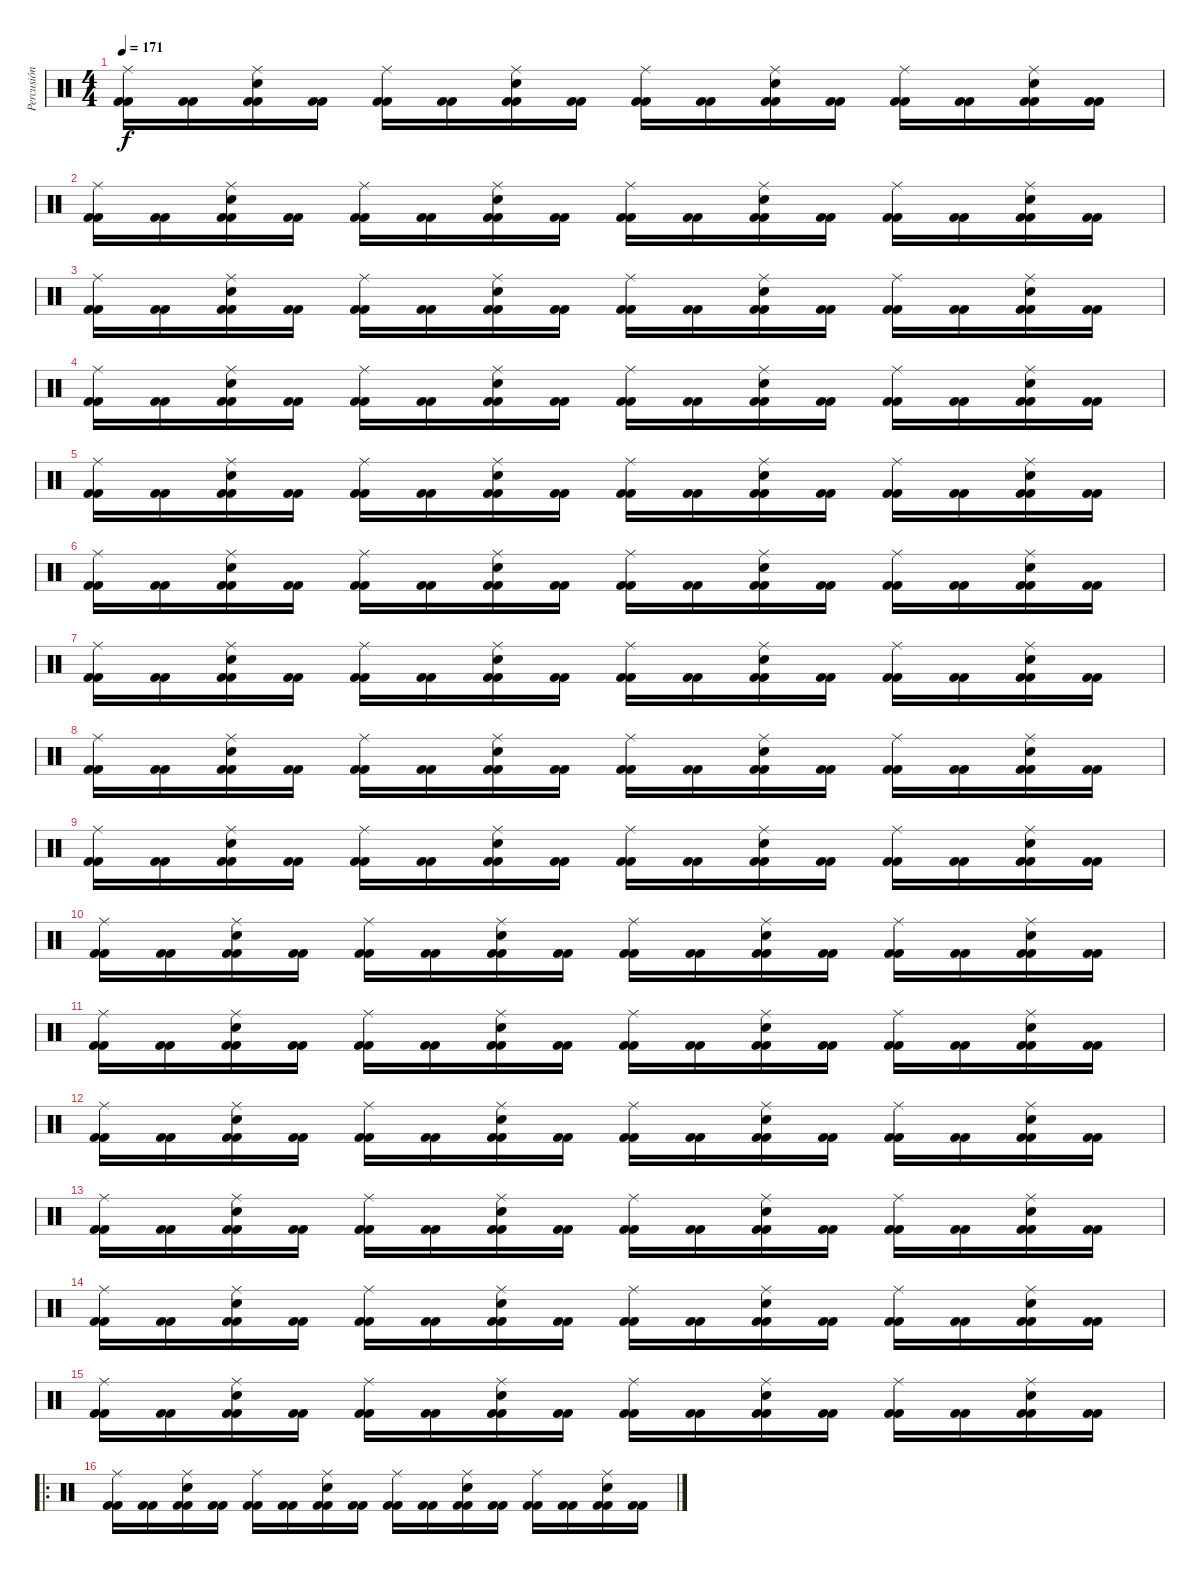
\track ("Percusión" "Percusión") {instrument percussion}
\staff {score}
\articulation defaults
\ts (4 4)
\tempo 171
\clef neutral
\ks c
("Kick (hit) 2" "Kick (hit) 2" "Ride (middle)").16{dy f} ("Kick (hit) 2" "Kick (hit) 2").16 ("Kick (hit) 2" "Kick (hit) 2" "Electric Snare (hit)" "Ride (middle)").16 ("Kick (hit) 2" "Kick (hit) 2").16 ("Kick (hit) 2" "Kick (hit) 2" "Ride (middle)").16 ("Kick (hit) 2" "Kick (hit) 2").16 ("Kick (hit) 2" "Kick (hit) 2" "Electric Snare (hit)" "Ride (middle)").16 ("Kick (hit) 2" "Kick (hit) 2").16 ("Kick (hit) 2" "Kick (hit) 2" "Ride (middle)").16 ("Kick (hit) 2" "Kick (hit) 2").16 ("Kick (hit) 2" "Kick (hit) 2" "Electric Snare (hit)" "Ride (middle)").16 ("Kick (hit) 2" "Kick (hit) 2").16 ("Kick (hit) 2" "Kick (hit) 2" "Ride (middle)").16 ("Kick (hit) 2" "Kick (hit) 2").16 ("Kick (hit) 2" "Kick (hit) 2" "Electric Snare (hit)" "Ride (middle)").16 ("Kick (hit) 2" "Kick (hit) 2").16 |
("Kick (hit) 2" "Kick (hit) 2" "Ride (middle)").16 ("Kick (hit) 2" "Kick (hit) 2").16 ("Kick (hit) 2" "Kick (hit) 2" "Electric Snare (hit)" "Ride (middle)").16 ("Kick (hit) 2" "Kick (hit) 2").16 ("Kick (hit) 2" "Kick (hit) 2" "Ride (middle)").16 ("Kick (hit) 2" "Kick (hit) 2").16 ("Kick (hit) 2" "Kick (hit) 2" "Electric Snare (hit)" "Ride (middle)").16 ("Kick (hit) 2" "Kick (hit) 2").16 ("Kick (hit) 2" "Kick (hit) 2" "Ride (middle)").16 ("Kick (hit) 2" "Kick (hit) 2").16 ("Kick (hit) 2" "Kick (hit) 2" "Electric Snare (hit)" "Ride (middle)").16 ("Kick (hit) 2" "Kick (hit) 2").16 ("Kick (hit) 2" "Kick (hit) 2" "Ride (middle)").16 ("Kick (hit) 2" "Kick (hit) 2").16 ("Kick (hit) 2" "Kick (hit) 2" "Electric Snare (hit)" "Ride (middle)").16 ("Kick (hit) 2" "Kick (hit) 2").16 |
("Kick (hit) 2" "Kick (hit) 2" "Ride (middle)").16 ("Kick (hit) 2" "Kick (hit) 2").16 ("Kick (hit) 2" "Kick (hit) 2" "Electric Snare (hit)" "Ride (middle)").16 ("Kick (hit) 2" "Kick (hit) 2").16 ("Kick (hit) 2" "Kick (hit) 2" "Ride (middle)").16 ("Kick (hit) 2" "Kick (hit) 2").16 ("Kick (hit) 2" "Kick (hit) 2" "Electric Snare (hit)" "Ride (middle)").16 ("Kick (hit) 2" "Kick (hit) 2").16 ("Kick (hit) 2" "Kick (hit) 2" "Ride (middle)").16 ("Kick (hit) 2" "Kick (hit) 2").16 ("Kick (hit) 2" "Kick (hit) 2" "Electric Snare (hit)" "Ride (middle)").16 ("Kick (hit) 2" "Kick (hit) 2").16 ("Kick (hit) 2" "Kick (hit) 2" "Ride (middle)").16 ("Kick (hit) 2" "Kick (hit) 2").16 ("Kick (hit) 2" "Kick (hit) 2" "Electric Snare (hit)" "Ride (middle)").16 ("Kick (hit) 2" "Kick (hit) 2").16 |
("Kick (hit) 2" "Kick (hit) 2" "Ride (middle)").16 ("Kick (hit) 2" "Kick (hit) 2").16 ("Kick (hit) 2" "Kick (hit) 2" "Electric Snare (hit)" "Ride (middle)").16 ("Kick (hit) 2" "Kick (hit) 2").16 ("Kick (hit) 2" "Kick (hit) 2" "Ride (middle)").16 ("Kick (hit) 2" "Kick (hit) 2").16 ("Kick (hit) 2" "Kick (hit) 2" "Electric Snare (hit)" "Ride (middle)").16 ("Kick (hit) 2" "Kick (hit) 2").16 ("Kick (hit) 2" "Kick (hit) 2" "Ride (middle)").16 ("Kick (hit) 2" "Kick (hit) 2").16 ("Kick (hit) 2" "Kick (hit) 2" "Electric Snare (hit)" "Ride (middle)").16 ("Kick (hit) 2" "Kick (hit) 2").16 ("Kick (hit) 2" "Kick (hit) 2" "Ride (middle)").16 ("Kick (hit) 2" "Kick (hit) 2").16 ("Kick (hit) 2" "Kick (hit) 2" "Electric Snare (hit)" "Ride (middle)").16 ("Kick (hit) 2" "Kick (hit) 2").16 |
("Kick (hit) 2" "Kick (hit) 2" "Ride (middle)").16 ("Kick (hit) 2" "Kick (hit) 2").16 ("Kick (hit) 2" "Kick (hit) 2" "Electric Snare (hit)" "Ride (middle)").16 ("Kick (hit) 2" "Kick (hit) 2").16 ("Kick (hit) 2" "Kick (hit) 2" "Ride (middle)").16 ("Kick (hit) 2" "Kick (hit) 2").16 ("Kick (hit) 2" "Kick (hit) 2" "Electric Snare (hit)" "Ride (middle)").16 ("Kick (hit) 2" "Kick (hit) 2").16 ("Kick (hit) 2" "Kick (hit) 2" "Ride (middle)").16 ("Kick (hit) 2" "Kick (hit) 2").16 ("Kick (hit) 2" "Kick (hit) 2" "Electric Snare (hit)" "Ride (middle)").16 ("Kick (hit) 2" "Kick (hit) 2").16 ("Kick (hit) 2" "Kick (hit) 2" "Ride (middle)").16 ("Kick (hit) 2" "Kick (hit) 2").16 ("Kick (hit) 2" "Kick (hit) 2" "Electric Snare (hit)" "Ride (middle)").16 ("Kick (hit) 2" "Kick (hit) 2").16 |
("Kick (hit) 2" "Kick (hit) 2" "Ride (middle)").16 ("Kick (hit) 2" "Kick (hit) 2").16 ("Kick (hit) 2" "Kick (hit) 2" "Electric Snare (hit)" "Ride (middle)").16 ("Kick (hit) 2" "Kick (hit) 2").16 ("Kick (hit) 2" "Kick (hit) 2" "Ride (middle)").16 ("Kick (hit) 2" "Kick (hit) 2").16 ("Kick (hit) 2" "Kick (hit) 2" "Electric Snare (hit)" "Ride (middle)").16 ("Kick (hit) 2" "Kick (hit) 2").16 ("Kick (hit) 2" "Kick (hit) 2" "Ride (middle)").16 ("Kick (hit) 2" "Kick (hit) 2").16 ("Kick (hit) 2" "Kick (hit) 2" "Electric Snare (hit)" "Ride (middle)").16 ("Kick (hit) 2" "Kick (hit) 2").16 ("Kick (hit) 2" "Kick (hit) 2" "Ride (middle)").16 ("Kick (hit) 2" "Kick (hit) 2").16 ("Kick (hit) 2" "Kick (hit) 2" "Electric Snare (hit)" "Ride (middle)").16 ("Kick (hit) 2" "Kick (hit) 2").16 |
("Kick (hit) 2" "Kick (hit) 2" "Ride (middle)").16 ("Kick (hit) 2" "Kick (hit) 2").16 ("Kick (hit) 2" "Kick (hit) 2" "Electric Snare (hit)" "Ride (middle)").16 ("Kick (hit) 2" "Kick (hit) 2").16 ("Kick (hit) 2" "Kick (hit) 2" "Ride (middle)").16 ("Kick (hit) 2" "Kick (hit) 2").16 ("Kick (hit) 2" "Kick (hit) 2" "Electric Snare (hit)" "Ride (middle)").16 ("Kick (hit) 2" "Kick (hit) 2").16 ("Kick (hit) 2" "Kick (hit) 2" "Ride (middle)").16 ("Kick (hit) 2" "Kick (hit) 2").16 ("Kick (hit) 2" "Kick (hit) 2" "Electric Snare (hit)" "Ride (middle)").16 ("Kick (hit) 2" "Kick (hit) 2").16 ("Kick (hit) 2" "Kick (hit) 2" "Ride (middle)").16 ("Kick (hit) 2" "Kick (hit) 2").16 ("Kick (hit) 2" "Kick (hit) 2" "Electric Snare (hit)" "Ride (middle)").16 ("Kick (hit) 2" "Kick (hit) 2").16 |
("Kick (hit) 2" "Kick (hit) 2" "Ride (middle)").16 ("Kick (hit) 2" "Kick (hit) 2").16 ("Kick (hit) 2" "Kick (hit) 2" "Electric Snare (hit)" "Ride (middle)").16 ("Kick (hit) 2" "Kick (hit) 2").16 ("Kick (hit) 2" "Kick (hit) 2" "Ride (middle)").16 ("Kick (hit) 2" "Kick (hit) 2").16 ("Kick (hit) 2" "Kick (hit) 2" "Electric Snare (hit)" "Ride (middle)").16 ("Kick (hit) 2" "Kick (hit) 2").16 ("Kick (hit) 2" "Kick (hit) 2" "Ride (middle)").16 ("Kick (hit) 2" "Kick (hit) 2").16 ("Kick (hit) 2" "Kick (hit) 2" "Electric Snare (hit)" "Ride (middle)").16 ("Kick (hit) 2" "Kick (hit) 2").16 ("Kick (hit) 2" "Kick (hit) 2" "Ride (middle)").16 ("Kick (hit) 2" "Kick (hit) 2").16 ("Kick (hit) 2" "Kick (hit) 2" "Electric Snare (hit)" "Ride (middle)").16 ("Kick (hit) 2" "Kick (hit) 2").16 |
("Kick (hit) 2" "Kick (hit) 2" "Ride (middle)").16 ("Kick (hit) 2" "Kick (hit) 2").16 ("Kick (hit) 2" "Kick (hit) 2" "Electric Snare (hit)" "Ride (middle)").16 ("Kick (hit) 2" "Kick (hit) 2").16 ("Kick (hit) 2" "Kick (hit) 2" "Ride (middle)").16 ("Kick (hit) 2" "Kick (hit) 2").16 ("Kick (hit) 2" "Kick (hit) 2" "Electric Snare (hit)" "Ride (middle)").16 ("Kick (hit) 2" "Kick (hit) 2").16 ("Kick (hit) 2" "Kick (hit) 2" "Ride (middle)").16 ("Kick (hit) 2" "Kick (hit) 2").16 ("Kick (hit) 2" "Kick (hit) 2" "Electric Snare (hit)" "Ride (middle)").16 ("Kick (hit) 2" "Kick (hit) 2").16 ("Kick (hit) 2" "Kick (hit) 2" "Ride (middle)").16 ("Kick (hit) 2" "Kick (hit) 2").16 ("Kick (hit) 2" "Kick (hit) 2" "Electric Snare (hit)" "Ride (middle)").16 ("Kick (hit) 2" "Kick (hit) 2").16 |
("Kick (hit) 2" "Kick (hit) 2" "Ride (middle)").16 ("Kick (hit) 2" "Kick (hit) 2").16 ("Kick (hit) 2" "Kick (hit) 2" "Electric Snare (hit)" "Ride (middle)").16 ("Kick (hit) 2" "Kick (hit) 2").16 ("Kick (hit) 2" "Kick (hit) 2" "Ride (middle)").16 ("Kick (hit) 2" "Kick (hit) 2").16 ("Kick (hit) 2" "Kick (hit) 2" "Electric Snare (hit)" "Ride (middle)").16 ("Kick (hit) 2" "Kick (hit) 2").16 ("Kick (hit) 2" "Kick (hit) 2" "Ride (middle)").16 ("Kick (hit) 2" "Kick (hit) 2").16 ("Kick (hit) 2" "Kick (hit) 2" "Electric Snare (hit)" "Ride (middle)").16 ("Kick (hit) 2" "Kick (hit) 2").16 ("Kick (hit) 2" "Kick (hit) 2" "Ride (middle)").16 ("Kick (hit) 2" "Kick (hit) 2").16 ("Kick (hit) 2" "Kick (hit) 2" "Electric Snare (hit)" "Ride (middle)").16 ("Kick (hit) 2" "Kick (hit) 2").16 |
("Kick (hit) 2" "Kick (hit) 2" "Ride (middle)").16 ("Kick (hit) 2" "Kick (hit) 2").16 ("Kick (hit) 2" "Kick (hit) 2" "Electric Snare (hit)" "Ride (middle)").16 ("Kick (hit) 2" "Kick (hit) 2").16 ("Kick (hit) 2" "Kick (hit) 2" "Ride (middle)").16 ("Kick (hit) 2" "Kick (hit) 2").16 ("Kick (hit) 2" "Kick (hit) 2" "Electric Snare (hit)" "Ride (middle)").16 ("Kick (hit) 2" "Kick (hit) 2").16 ("Kick (hit) 2" "Kick (hit) 2" "Ride (middle)").16 ("Kick (hit) 2" "Kick (hit) 2").16 ("Kick (hit) 2" "Kick (hit) 2" "Electric Snare (hit)" "Ride (middle)").16 ("Kick (hit) 2" "Kick (hit) 2").16 ("Kick (hit) 2" "Kick (hit) 2" "Ride (middle)").16 ("Kick (hit) 2" "Kick (hit) 2").16 ("Kick (hit) 2" "Kick (hit) 2" "Electric Snare (hit)" "Ride (middle)").16 ("Kick (hit) 2" "Kick (hit) 2").16 |
("Kick (hit) 2" "Kick (hit) 2" "Ride (middle)").16 ("Kick (hit) 2" "Kick (hit) 2").16 ("Kick (hit) 2" "Kick (hit) 2" "Electric Snare (hit)" "Ride (middle)").16 ("Kick (hit) 2" "Kick (hit) 2").16 ("Kick (hit) 2" "Kick (hit) 2" "Ride (middle)").16 ("Kick (hit) 2" "Kick (hit) 2").16 ("Kick (hit) 2" "Kick (hit) 2" "Electric Snare (hit)" "Ride (middle)").16 ("Kick (hit) 2" "Kick (hit) 2").16 ("Kick (hit) 2" "Kick (hit) 2" "Ride (middle)").16 ("Kick (hit) 2" "Kick (hit) 2").16 ("Kick (hit) 2" "Kick (hit) 2" "Electric Snare (hit)" "Ride (middle)").16 ("Kick (hit) 2" "Kick (hit) 2").16 ("Kick (hit) 2" "Kick (hit) 2" "Ride (middle)").16 ("Kick (hit) 2" "Kick (hit) 2").16 ("Kick (hit) 2" "Kick (hit) 2" "Electric Snare (hit)" "Ride (middle)").16 ("Kick (hit) 2" "Kick (hit) 2").16 |
("Kick (hit) 2" "Kick (hit) 2" "Ride (middle)").16 ("Kick (hit) 2" "Kick (hit) 2").16 ("Kick (hit) 2" "Kick (hit) 2" "Electric Snare (hit)" "Ride (middle)").16 ("Kick (hit) 2" "Kick (hit) 2").16 ("Kick (hit) 2" "Kick (hit) 2" "Ride (middle)").16 ("Kick (hit) 2" "Kick (hit) 2").16 ("Kick (hit) 2" "Kick (hit) 2" "Electric Snare (hit)" "Ride (middle)").16 ("Kick (hit) 2" "Kick (hit) 2").16 ("Kick (hit) 2" "Kick (hit) 2" "Ride (middle)").16 ("Kick (hit) 2" "Kick (hit) 2").16 ("Kick (hit) 2" "Kick (hit) 2" "Electric Snare (hit)" "Ride (middle)").16 ("Kick (hit) 2" "Kick (hit) 2").16 ("Kick (hit) 2" "Kick (hit) 2" "Ride (middle)").16 ("Kick (hit) 2" "Kick (hit) 2").16 ("Kick (hit) 2" "Kick (hit) 2" "Electric Snare (hit)" "Ride (middle)").16 ("Kick (hit) 2" "Kick (hit) 2").16 |
("Kick (hit) 2" "Kick (hit) 2" "Ride (middle)").16 ("Kick (hit) 2" "Kick (hit) 2").16 ("Kick (hit) 2" "Kick (hit) 2" "Electric Snare (hit)" "Ride (middle)").16 ("Kick (hit) 2" "Kick (hit) 2").16 ("Kick (hit) 2" "Kick (hit) 2" "Ride (middle)").16 ("Kick (hit) 2" "Kick (hit) 2").16 ("Kick (hit) 2" "Kick (hit) 2" "Electric Snare (hit)" "Ride (middle)").16 ("Kick (hit) 2" "Kick (hit) 2").16 ("Kick (hit) 2" "Kick (hit) 2" "Ride (middle)").16 ("Kick (hit) 2" "Kick (hit) 2").16 ("Kick (hit) 2" "Kick (hit) 2" "Electric Snare (hit)" "Ride (middle)").16 ("Kick (hit) 2" "Kick (hit) 2").16 ("Kick (hit) 2" "Kick (hit) 2" "Ride (middle)").16 ("Kick (hit) 2" "Kick (hit) 2").16 ("Kick (hit) 2" "Kick (hit) 2" "Electric Snare (hit)" "Ride (middle)").16 ("Kick (hit) 2" "Kick (hit) 2").16 |
("Kick (hit) 2" "Kick (hit) 2" "Ride (middle)").16 ("Kick (hit) 2" "Kick (hit) 2").16 ("Kick (hit) 2" "Kick (hit) 2" "Electric Snare (hit)" "Ride (middle)").16 ("Kick (hit) 2" "Kick (hit) 2").16 ("Kick (hit) 2" "Kick (hit) 2" "Ride (middle)").16 ("Kick (hit) 2" "Kick (hit) 2").16 ("Kick (hit) 2" "Kick (hit) 2" "Electric Snare (hit)" "Ride (middle)").16 ("Kick (hit) 2" "Kick (hit) 2").16 ("Kick (hit) 2" "Kick (hit) 2" "Ride (middle)").16 ("Kick (hit) 2" "Kick (hit) 2").16 ("Kick (hit) 2" "Kick (hit) 2" "Electric Snare (hit)" "Ride (middle)").16 ("Kick (hit) 2" "Kick (hit) 2").16 ("Kick (hit) 2" "Kick (hit) 2" "Ride (middle)").16 ("Kick (hit) 2" "Kick (hit) 2").16 ("Kick (hit) 2" "Kick (hit) 2" "Electric Snare (hit)" "Ride (middle)").16 ("Kick (hit) 2" "Kick (hit) 2").16 |
\ro
("Kick (hit) 2" "Kick (hit) 2" "Ride (middle)").16 ("Kick (hit) 2" "Kick (hit) 2").16 ("Kick (hit) 2" "Kick (hit) 2" "Electric Snare (hit)" "Ride (middle)").16 ("Kick (hit) 2" "Kick (hit) 2").16 ("Kick (hit) 2" "Kick (hit) 2" "Ride (middle)").16 ("Kick (hit) 2" "Kick (hit) 2").16 ("Kick (hit) 2" "Kick (hit) 2" "Electric Snare (hit)" "Ride (middle)").16 ("Kick (hit) 2" "Kick (hit) 2").16 ("Kick (hit) 2" "Kick (hit) 2" "Ride (middle)").16 ("Kick (hit) 2" "Kick (hit) 2").16 ("Kick (hit) 2" "Kick (hit) 2" "Electric Snare (hit)" "Ride (middle)").16 ("Kick (hit) 2" "Kick (hit) 2").16 ("Kick (hit) 2" "Kick (hit) 2" "Ride (middle)").16 ("Kick (hit) 2" "Kick (hit) 2").16 ("Kick (hit) 2" "Kick (hit) 2" "Electric Snare (hit)" "Ride (middle)").16 ("Kick (hit) 2" "Kick (hit) 2").16
